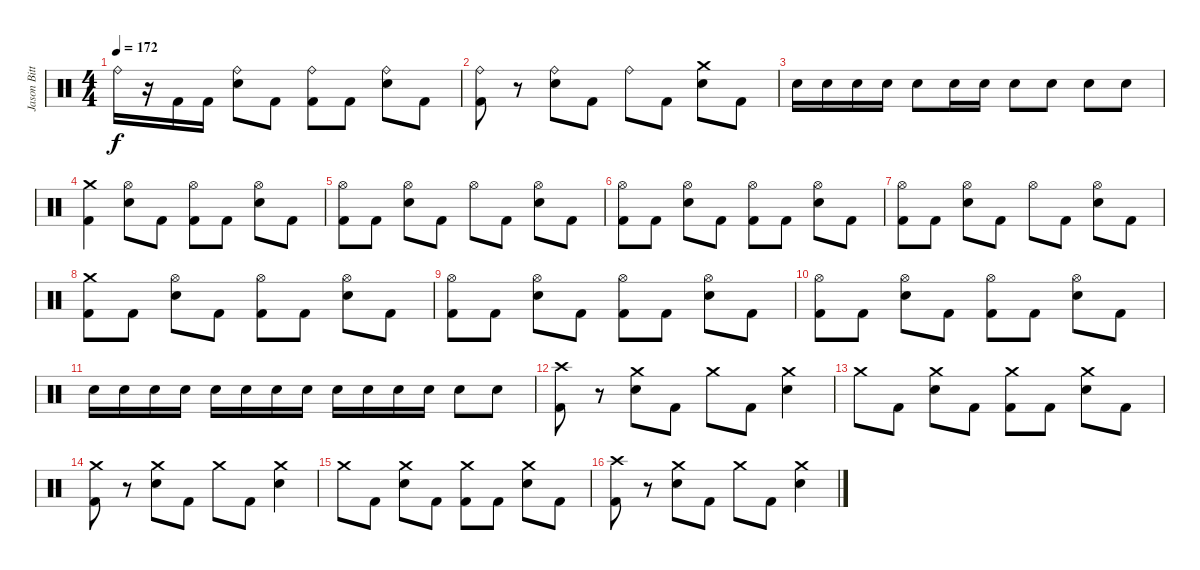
\track ("Jason Bittner" "Jason Bitt") {instrument percussion}
\staff {score}
\articulation defaults
\ts (4 4)
\tempo 172
\clef neutral
\ks c "Ride (bell)".16{dy f}
r.16 "Kick (hit) 2".16 "Kick (hit) 2".16 ("Ride (bell)" "Electric Snare (hit)").8 "Kick (hit) 2".8 ("Ride (bell)" "Kick (hit) 2").8 "Kick (hit) 2".8 ("Ride (bell)" "Electric Snare (hit)").8 "Kick (hit) 2".8 |
("Ride (bell)" "Kick (hit) 2").8 r.8 ("Ride (bell)" "Electric Snare (hit)").8 "Kick (hit) 2".8 "Ride (bell)".8 "Kick (hit) 2".8 ("Crash medium (hit)" "Electric Snare (hit)").8 "Kick (hit) 2".8 |
"Electric Snare (hit)".16 "Electric Snare (hit)".16 "Electric Snare (hit)".16 "Electric Snare (hit)".16 "Electric Snare (hit)".8 "Electric Snare (hit)".16 "Electric Snare (hit)".16 "Electric Snare (hit)".8 "Electric Snare (hit)".8 "Electric Snare (hit)".8 "Electric Snare (hit)".8 |
("Crash medium (hit)" "Kick (hit) 2").4 ("Hi-Hat (open)" "Electric Snare (hit)").8 "Kick (hit) 2".8 ("Hi-Hat (open)" "Kick (hit) 2").8 "Kick (hit) 2".8 ("Hi-Hat (open)" "Electric Snare (hit)").8 "Kick (hit) 2".8 |
("Hi-Hat (open)" "Kick (hit) 2").8 "Kick (hit) 2".8 ("Hi-Hat (open)" "Electric Snare (hit)").8 "Kick (hit) 2".8 "Hi-Hat (open)".8 "Kick (hit) 2".8 ("Hi-Hat (open)" "Electric Snare (hit)").8 "Kick (hit) 2".8 |
("Hi-Hat (open)" "Kick (hit) 2").8 "Kick (hit) 2".8 ("Hi-Hat (open)" "Electric Snare (hit)").8 "Kick (hit) 2".8 ("Hi-Hat (open)" "Kick (hit) 2").8 "Kick (hit) 2".8 ("Hi-Hat (open)" "Electric Snare (hit)").8 "Kick (hit) 2".8 |
("Hi-Hat (open)" "Kick (hit) 2").8 "Kick (hit) 2".8 ("Hi-Hat (open)" "Electric Snare (hit)").8 "Kick (hit) 2".8 "Hi-Hat (open)".8 "Kick (hit) 2".8 ("Hi-Hat (open)" "Electric Snare (hit)").8 "Kick (hit) 2".8 |
("Crash medium (hit)" "Kick (hit) 2").8 "Kick (hit) 2".8 ("Hi-Hat (open)" "Electric Snare (hit)").8 "Kick (hit) 2".8 ("Hi-Hat (open)" "Kick (hit) 2").8 "Kick (hit) 2".8 ("Hi-Hat (open)" "Electric Snare (hit)").8 "Kick (hit) 2".8 |
("Hi-Hat (open)" "Kick (hit) 2").8 "Kick (hit) 2".8 ("Hi-Hat (open)" "Electric Snare (hit)").8 "Kick (hit) 2".8 ("Hi-Hat (open)" "Kick (hit) 2").8 "Kick (hit) 2".8 ("Hi-Hat (open)" "Electric Snare (hit)").8 "Kick (hit) 2".8 |
("Hi-Hat (open)" "Kick (hit) 2").8 "Kick (hit) 2".8 ("Hi-Hat (open)" "Electric Snare (hit)").8 "Kick (hit) 2".8 ("Hi-Hat (open)" "Kick (hit) 2").8 "Kick (hit) 2".8 ("Hi-Hat (open)" "Electric Snare (hit)").8 "Kick (hit) 2".8 |
"Electric Snare (hit)".16 "Electric Snare (hit)".16 "Electric Snare (hit)".16 "Electric Snare (hit)".16 "Electric Snare (hit)".16 "Electric Snare (hit)".16 "Electric Snare (hit)".16 "Electric Snare (hit)".16 "Electric Snare (hit)".16 "Electric Snare (hit)".16 "Electric Snare (hit)".16 "Electric Snare (hit)".16 "Electric Snare (hit)".8 "Electric Snare (hit)".8 |
("Crash high (hit)" "Kick (hit) 2").8 r.8 ("Crash medium (hit)" "Electric Snare (hit)").8 "Kick (hit) 2".8 "Crash medium (hit)".8 "Kick (hit) 2".8 ("Crash medium (hit)" "Electric Snare (hit)").4 |
"Crash medium (hit)".8 "Kick (hit) 2".8 ("Crash medium (hit)" "Electric Snare (hit)").8 "Kick (hit) 2".8 ("Crash medium (hit)" "Kick (hit) 2").8 "Kick (hit) 2".8 ("Crash medium (hit)" "Electric Snare (hit)").8 "Kick (hit) 2".8 |
("Crash medium (hit)" "Kick (hit) 2").8 r.8 ("Crash medium (hit)" "Electric Snare (hit)").8 "Kick (hit) 2".8 "Crash medium (hit)".8 "Kick (hit) 2".8 ("Crash medium (hit)" "Electric Snare (hit)").4 |
"Crash medium (hit)".8 "Kick (hit) 2".8 ("Crash medium (hit)" "Electric Snare (hit)").8 "Kick (hit) 2".8 ("Crash medium (hit)" "Kick (hit) 2").8 "Kick (hit) 2".8 ("Crash medium (hit)" "Electric Snare (hit)").8 "Kick (hit) 2".8 |
("Crash high (hit)" "Kick (hit) 2").8 r.8 ("Crash medium (hit)" "Electric Snare (hit)").8 "Kick (hit) 2".8 "Crash medium (hit)".8 "Kick (hit) 2".8 ("Crash medium (hit)" "Electric Snare (hit)").4
